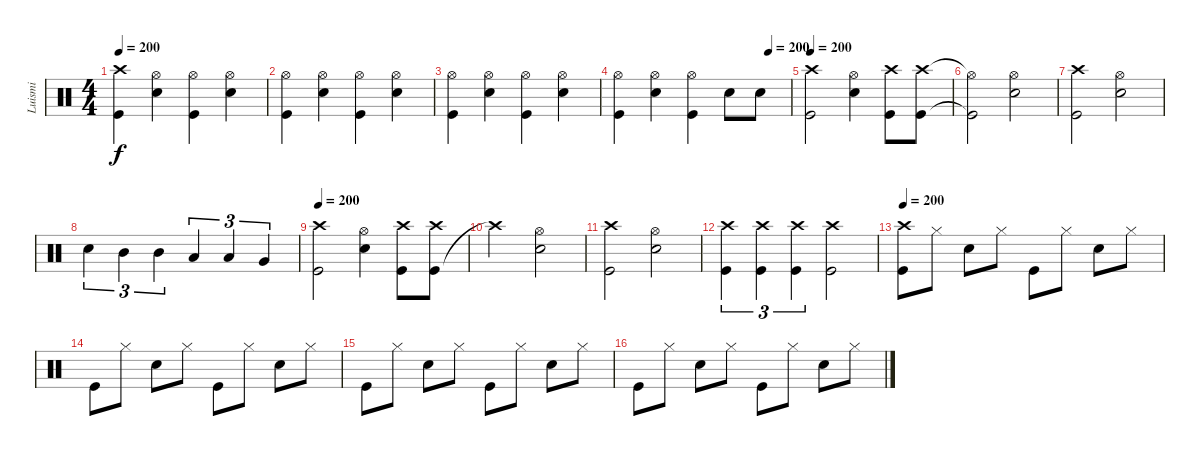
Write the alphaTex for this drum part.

\track ("Luismi" "Luismi") {instrument percussion}
\staff {score}
\articulation defaults
\ts (4 4)
\tempo 200
\clef neutral
\ks c
("Kick (hit)" "Crash high (hit)").4{dy f} ("Hi-Hat (open)" "Snare (hit) 2").4 ("Kick (hit)" "Hi-Hat (open)").4 ("Snare (hit) 2" "Hi-Hat (open)").4 |
("Kick (hit)" "Hi-Hat (open)").4 ("Hi-Hat (open)" "Snare (hit) 2").4 ("Kick (hit)" "Hi-Hat (open)").4 ("Snare (hit) 2" "Hi-Hat (open)").4 |
("Kick (hit)" "Hi-Hat (open)").4 ("Hi-Hat (open)" "Snare (hit) 2").4 ("Kick (hit)" "Hi-Hat (open)").4 ("Snare (hit) 2" "Hi-Hat (open)").4 |
\tempo (200 0.875)
("Kick (hit)" "Hi-Hat (open)").4 ("Hi-Hat (open)" "Snare (hit) 2").4 ("Kick (hit)" "Hi-Hat (open)").4 "Snare (hit) 2".8 "Snare (hit) 2".8 |
\tempo 200
("Crash high (hit)" "Kick (hit)").2 ("Snare (hit) 2" "Hi-Hat (open)").4 ("Crash high (hit)" "Kick (hit)").8 ("Crash high (hit)" "Kick (hit)").8 |
("Hi-Hat (open)"{t} "Kick (hit)"{t}).2 ("Hi-Hat (open)" "Snare (hit) 2").2 |
("Crash high (hit)" "Kick (hit)").2 ("Hi-Hat (open)" "Snare (hit) 2").2 |
"Snare (hit) 2".4{tu (3 2)} "Mid Tom (hit)".4{tu (3 2)} "Mid Tom (hit)".4{tu (3 2)} "Low Tom (hit)".4{tu (3 2)} "Low Tom (hit)".4{tu (3 2)} "Very Low Tom (hit)".4{tu (3 2)} |
\tempo 200
("Kick (hit)" "Crash high (hit)").2 ("Hi-Hat (open)" "Snare (hit) 2").4 ("Kick (hit)" "Crash high (hit)").8 ("Kick (hit)" "Crash high (hit)").8 |
"Crash high (hit)"{t}.2 ("Hi-Hat (open)" "Snare (hit) 2").2 |
("Crash high (hit)" "Kick (hit)").2 ("Hi-Hat (open)" "Snare (hit) 2").2 |
("Kick (hit)" "Crash high (hit)").4{tu (3 2)} ("Kick (hit)" "Crash high (hit)").4{tu (3 2)} ("Kick (hit)" "Crash high (hit)").4{tu (3 2)} ("Kick (hit)" "Crash high (hit)").2 |
\tempo 200
("Crash high (hit)" "Kick (hit)").8 "Hi-Hat (closed)".8 "Snare (hit) 2".8 "Hi-Hat (closed)".8 "Kick (hit)".8 "Hi-Hat (closed)".8 "Snare (hit) 2".8 "Hi-Hat (closed)".8 |
"Kick (hit)".8 "Hi-Hat (closed)".8 "Snare (hit) 2".8 "Hi-Hat (closed)".8 "Kick (hit)".8 "Hi-Hat (closed)".8 "Snare (hit) 2".8 "Hi-Hat (closed)".8 |
"Kick (hit)".8 "Hi-Hat (closed)".8 "Snare (hit) 2".8 "Hi-Hat (closed)".8 "Kick (hit)".8 "Hi-Hat (closed)".8 "Snare (hit) 2".8 "Hi-Hat (closed)".8 |
"Kick (hit)".8 "Hi-Hat (closed)".8 "Snare (hit) 2".8 "Hi-Hat (closed)".8 "Kick (hit)".8 "Hi-Hat (closed)".8 "Snare (hit) 2".8 "Hi-Hat (closed)".8
